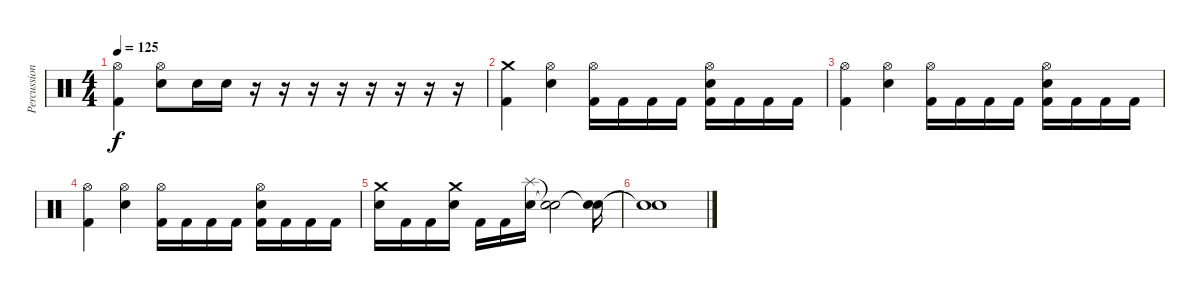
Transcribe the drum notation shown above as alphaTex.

\track ("Percussion" "Percussion") {instrument percussion}
\staff {score}
\articulation defaults
\ts (4 4)
\tempo 125
\clef neutral
\ks c
("Hi-Hat (open)" "Kick (hit) 2").4{dy f} ("Hi-Hat (open)" "Electric Snare (hit)").8 "Electric Snare (hit)".16 "Electric Snare (hit)".16 r.16 r.16 r.16 r.16 r.16 r.16 r.16 r.16 |
("Crash medium (hit)" "Kick (hit) 2").4 ("Hi-Hat (open)" "Electric Snare (hit)").4 ("Hi-Hat (open)" "Kick (hit) 2").16 "Kick (hit) 2".16 "Kick (hit) 2".16 "Kick (hit) 2".16 ("Hi-Hat (open)" "Electric Snare (hit)" "Kick (hit) 2").16 "Kick (hit) 2".16 "Kick (hit) 2".16 "Kick (hit) 2".16 |
("Hi-Hat (open)" "Kick (hit) 2").4 ("Hi-Hat (open)" "Electric Snare (hit)").4 ("Hi-Hat (open)" "Kick (hit) 2").16 "Kick (hit) 2".16 "Kick (hit) 2".16 "Kick (hit) 2".16 ("Hi-Hat (open)" "Electric Snare (hit)" "Kick (hit) 2").16 "Kick (hit) 2".16 "Kick (hit) 2".16 "Kick (hit) 2".16 |
("Hi-Hat (open)" "Kick (hit) 2").4 ("Hi-Hat (open)" "Electric Snare (hit)").4 ("Hi-Hat (open)" "Kick (hit) 2").16 "Kick (hit) 2".16 "Kick (hit) 2".16 "Kick (hit) 2".16 ("Hi-Hat (open)" "Electric Snare (hit)" "Kick (hit) 2").16 "Kick (hit) 2".16 "Kick (hit) 2".16 "Kick (hit) 2".16 |
("Crash medium (hit)" "Electric Snare (hit)").16 "Kick (hit) 2".16 "Kick (hit) 2".16 ("Crash medium (hit)" "Electric Snare (hit)").16 "Kick (hit) 2".16 "Kick (hit) 2".16 ("Splash (hit)" "Electric Snare (hit)").16 ("Snare (hit)"{t} "Snare (hit)"{t}).2 ("Snare (hit)"{t} "Snare (hit)"{t}).16 |
("Snare (hit)"{t} "Snare (hit)"{t}).1
